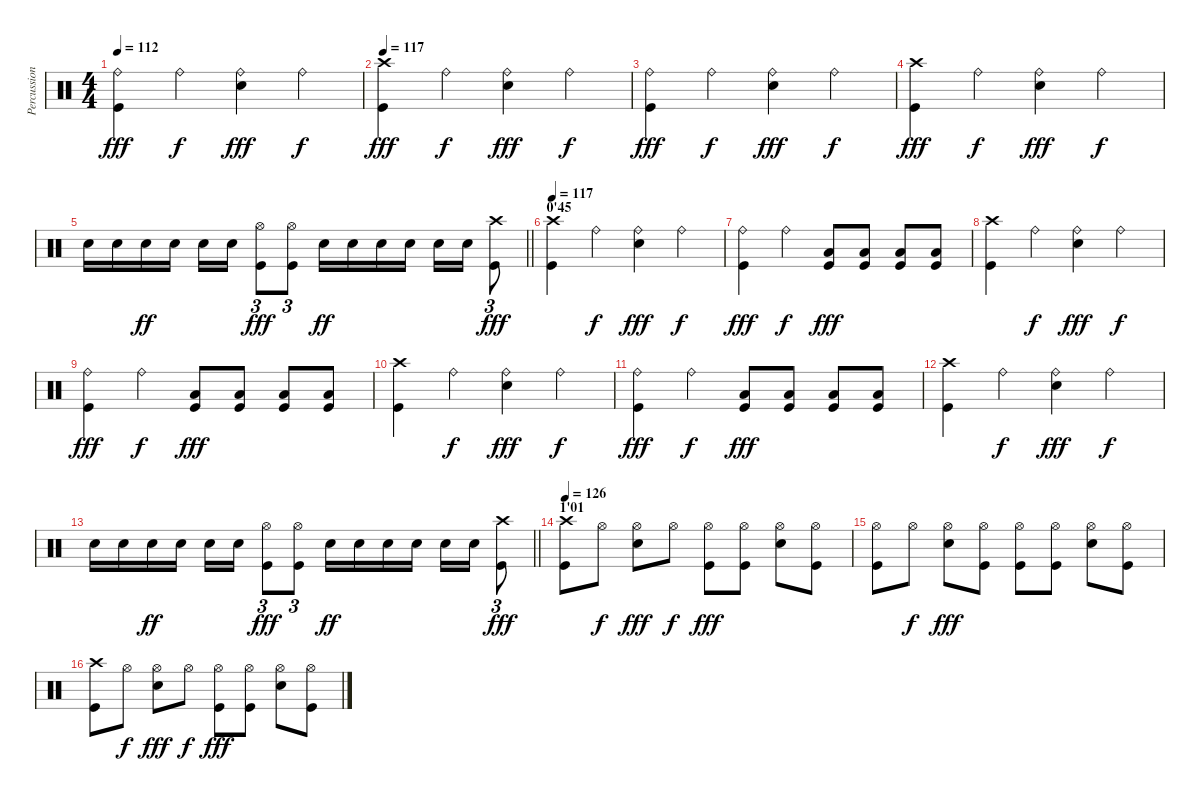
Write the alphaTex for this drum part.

\track ("Percussions" "Percussion") {instrument percussion}
\staff {score}
\articulation defaults
\ts (4 4)
\tempo 112
\clef neutral
\ks c
("Ride (bell)" "Kick (hit)").4{dy fff} "Ride (bell)".4{dy f} ("Ride (bell)" "Electric Snare (hit)").4{dy fff} "Ride (bell)".4{dy f} |
\tempo 117
("Crash high (hit)" "Kick (hit)").4{dy fff} "Ride (bell)".4{dy f} ("Ride (bell)" "Electric Snare (hit)").4{dy fff} "Ride (bell)".4{dy f} |
("Ride (bell)" "Kick (hit)").4{dy fff} "Ride (bell)".4{dy f} ("Ride (bell)" "Electric Snare (hit)").4{dy fff} "Ride (bell)".4{dy f} |
("Crash high (hit)" "Kick (hit)").4{dy fff} "Ride (bell)".4{dy f} ("Ride (bell)" "Electric Snare (hit)").4{dy fff} "Ride (bell)".4{dy f} |
\barLineRight lightlight "Electric Snare (hit)".16 "Electric Snare (hit)".16 "Electric Snare (hit)".16{dy ff} "Electric Snare (hit)".16 "Electric Snare (hit)".16 "Electric Snare (hit)".16
("Hi-Hat (open)" "Kick (hit)").8{tu (3 2) dy fff} ("Hi-Hat (open)" "Kick (hit)").8{tu (3 2)} "Electric Snare (hit)".16{dy ff} "Electric Snare (hit)".16 "Electric Snare (hit)".16 "Electric Snare (hit)".16 "Electric Snare (hit)".16 "Electric Snare (hit)".16 ("Crash high (hit)" "Kick (hit)").8{tu (3 2) dy fff} |
\section ("" "0'45")
\tempo 117
("Crash high (hit)" "Kick (hit)").4 "Ride (bell)".4{dy f} ("Ride (bell)" "Electric Snare (hit)").4{dy fff} "Ride (bell)".4{dy f} |
("Ride (bell)" "Kick (hit)").4{dy fff} "Ride (bell)".4{dy f} ("Low Floor Tom (hit)" "Kick (hit)").8{dy fff} ("Low Floor Tom (hit)" "Kick (hit)").8 ("Low Floor Tom (hit)" "Kick (hit)").8 ("Low Floor Tom (hit)" "Kick (hit)").8 |
("Crash high (hit)" "Kick (hit)").4 "Ride (bell)".4{dy f} ("Ride (bell)" "Electric Snare (hit)").4{dy fff} "Ride (bell)".4{dy f} |
("Ride (bell)" "Kick (hit)").4{dy fff} "Ride (bell)".4{dy f} ("Low Floor Tom (hit)" "Kick (hit)").8{dy fff} ("Low Floor Tom (hit)" "Kick (hit)").8 ("Low Floor Tom (hit)" "Kick (hit)").8 ("Low Floor Tom (hit)" "Kick (hit)").8 |
("Crash high (hit)" "Kick (hit)").4 "Ride (bell)".4{dy f} ("Ride (bell)" "Electric Snare (hit)").4{dy fff} "Ride (bell)".4{dy f} |
("Ride (bell)" "Kick (hit)").4{dy fff} "Ride (bell)".4{dy f} ("Low Floor Tom (hit)" "Kick (hit)").8{dy fff} ("Low Floor Tom (hit)" "Kick (hit)").8 ("Low Floor Tom (hit)" "Kick (hit)").8 ("Low Floor Tom (hit)" "Kick (hit)").8 |
("Crash high (hit)" "Kick (hit)").4 "Ride (bell)".4{dy f} ("Ride (bell)" "Electric Snare (hit)").4{dy fff} "Ride (bell)".4{dy f} |
\barLineRight lightlight "Electric Snare (hit)".16 "Electric Snare (hit)".16 "Electric Snare (hit)".16{dy ff} "Electric Snare (hit)".16 "Electric Snare (hit)".16 "Electric Snare (hit)".16
("Hi-Hat (open)" "Kick (hit)").8{tu (3 2) dy fff} ("Hi-Hat (open)" "Kick (hit)").8{tu (3 2)} "Electric Snare (hit)".16{dy ff} "Electric Snare (hit)".16 "Electric Snare (hit)".16 "Electric Snare (hit)".16 "Electric Snare (hit)".16 "Electric Snare (hit)".16 ("Crash high (hit)" "Kick (hit)").8{tu (3 2) dy fff} |
\section ("" "1'01")
\tempo 126
("Crash high (hit)" "Kick (hit)").8 "Hi-Hat (open)".8{dy f} ("Hi-Hat (open)" "Electric Snare (hit)").8{dy fff} "Hi-Hat (open)".8{dy f} ("Hi-Hat (open)" "Kick (hit)").8{dy fff} ("Hi-Hat (open)" "Kick (hit)").8 ("Hi-Hat (open)" "Electric Snare (hit)").8 ("Hi-Hat (open)" "Kick (hit)").8 |
("Hi-Hat (open)" "Kick (hit)").8 "Hi-Hat (open)".8{dy f} ("Hi-Hat (open)" "Electric Snare (hit)").8{dy fff} ("Hi-Hat (open)" "Kick (hit)").8 ("Hi-Hat (open)" "Kick (hit)").8 ("Hi-Hat (open)" "Kick (hit)").8 ("Hi-Hat (open)" "Electric Snare (hit)").8 ("Hi-Hat (open)" "Kick (hit)").8 |
("Crash high (hit)" "Kick (hit)").8 "Hi-Hat (open)".8{dy f} ("Hi-Hat (open)" "Electric Snare (hit)").8{dy fff} "Hi-Hat (open)".8{dy f} ("Hi-Hat (open)" "Kick (hit)").8{dy fff} ("Hi-Hat (open)" "Kick (hit)").8 ("Hi-Hat (open)" "Electric Snare (hit)").8 ("Hi-Hat (open)" "Kick (hit)").8
